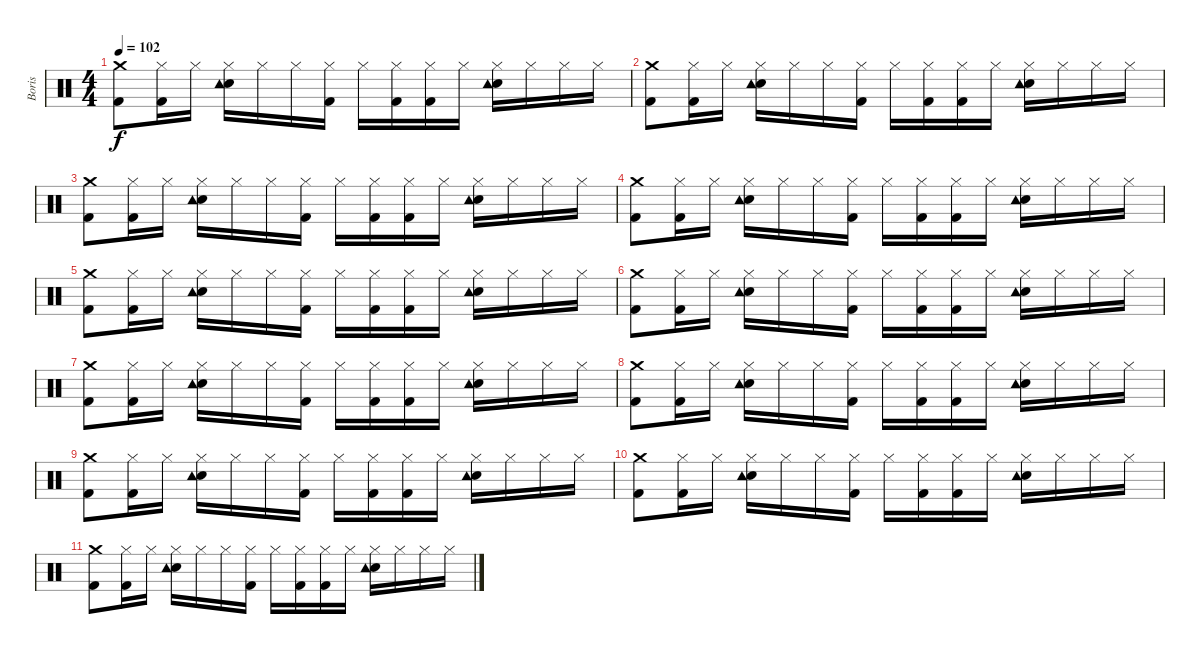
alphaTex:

\track ("Boris" "Boris") {instrument percussion}
\staff {score}
\articulation defaults
\ts (4 4)
\tempo 102
\clef neutral
\ks c
("Kick (hit) 2" "Crash medium (hit)").8{dy f} ("Kick (hit) 2" "Hi-Hat (closed)").16 "Hi-Hat (closed)".16 ("Electric Snare (hit)" "Tambourine (hit)" "Hi-Hat (closed)").16 "Hi-Hat (closed)".16 "Hi-Hat (closed)".16 ("Kick (hit) 2" "Hi-Hat (closed)").16 "Hi-Hat (closed)".16 ("Kick (hit) 2" "Hi-Hat (closed)").16 ("Kick (hit) 2" "Hi-Hat (closed)").16 "Hi-Hat (closed)".16 ("Electric Snare (hit)" "Tambourine (hit)" "Hi-Hat (closed)").16 "Hi-Hat (closed)".16 "Hi-Hat (closed)".16 "Hi-Hat (closed)".16 |
("Kick (hit) 2" "Crash medium (hit)").8 ("Kick (hit) 2" "Hi-Hat (closed)").16 "Hi-Hat (closed)".16 ("Electric Snare (hit)" "Tambourine (hit)" "Hi-Hat (closed)").16 "Hi-Hat (closed)".16 "Hi-Hat (closed)".16 ("Kick (hit) 2" "Hi-Hat (closed)").16 "Hi-Hat (closed)".16 ("Kick (hit) 2" "Hi-Hat (closed)").16 ("Kick (hit) 2" "Hi-Hat (closed)").16 "Hi-Hat (closed)".16 ("Electric Snare (hit)" "Tambourine (hit)" "Hi-Hat (closed)").16 "Hi-Hat (closed)".16 "Hi-Hat (closed)".16 "Hi-Hat (closed)".16 |
("Kick (hit) 2" "Crash medium (hit)").8{volume 6} ("Kick (hit) 2" "Hi-Hat (closed)").16 "Hi-Hat (closed)".16 ("Electric Snare (hit)" "Tambourine (hit)" "Hi-Hat (closed)").16 "Hi-Hat (closed)".16 "Hi-Hat (closed)".16 ("Kick (hit) 2" "Hi-Hat (closed)").16 "Hi-Hat (closed)".16 ("Kick (hit) 2" "Hi-Hat (closed)").16 ("Kick (hit) 2" "Hi-Hat (closed)").16 "Hi-Hat (closed)".16 ("Electric Snare (hit)" "Tambourine (hit)" "Hi-Hat (closed)").16 "Hi-Hat (closed)".16 "Hi-Hat (closed)".16 "Hi-Hat (closed)".16 |
("Kick (hit) 2" "Crash medium (hit)").8 ("Kick (hit) 2" "Hi-Hat (closed)").16 "Hi-Hat (closed)".16 ("Electric Snare (hit)" "Tambourine (hit)" "Hi-Hat (closed)").16 "Hi-Hat (closed)".16 "Hi-Hat (closed)".16 ("Kick (hit) 2" "Hi-Hat (closed)").16 "Hi-Hat (closed)".16 ("Kick (hit) 2" "Hi-Hat (closed)").16 ("Kick (hit) 2" "Hi-Hat (closed)").16 "Hi-Hat (closed)".16 ("Electric Snare (hit)" "Tambourine (hit)" "Hi-Hat (closed)").16 "Hi-Hat (closed)".16 "Hi-Hat (closed)".16 "Hi-Hat (closed)".16 |
("Kick (hit) 2" "Crash medium (hit)").8 ("Kick (hit) 2" "Hi-Hat (closed)").16 "Hi-Hat (closed)".16 ("Electric Snare (hit)" "Tambourine (hit)" "Hi-Hat (closed)").16 "Hi-Hat (closed)".16 "Hi-Hat (closed)".16 ("Kick (hit) 2" "Hi-Hat (closed)").16 "Hi-Hat (closed)".16 ("Kick (hit) 2" "Hi-Hat (closed)").16 ("Kick (hit) 2" "Hi-Hat (closed)").16 "Hi-Hat (closed)".16 ("Electric Snare (hit)" "Tambourine (hit)" "Hi-Hat (closed)").16 "Hi-Hat (closed)".16 "Hi-Hat (closed)".16 "Hi-Hat (closed)".16 |
("Kick (hit) 2" "Crash medium (hit)").8 ("Kick (hit) 2" "Hi-Hat (closed)").16 "Hi-Hat (closed)".16 ("Electric Snare (hit)" "Tambourine (hit)" "Hi-Hat (closed)").16 "Hi-Hat (closed)".16 "Hi-Hat (closed)".16 ("Kick (hit) 2" "Hi-Hat (closed)").16 "Hi-Hat (closed)".16 ("Kick (hit) 2" "Hi-Hat (closed)").16 ("Kick (hit) 2" "Hi-Hat (closed)").16 "Hi-Hat (closed)".16 ("Electric Snare (hit)" "Tambourine (hit)" "Hi-Hat (closed)").16 "Hi-Hat (closed)".16 "Hi-Hat (closed)".16 "Hi-Hat (closed)".16 |
("Kick (hit) 2" "Crash medium (hit)").8{volume 1} ("Kick (hit) 2" "Hi-Hat (closed)").16 "Hi-Hat (closed)".16 ("Electric Snare (hit)" "Tambourine (hit)" "Hi-Hat (closed)").16 "Hi-Hat (closed)".16 "Hi-Hat (closed)".16 ("Kick (hit) 2" "Hi-Hat (closed)").16 "Hi-Hat (closed)".16 ("Kick (hit) 2" "Hi-Hat (closed)").16 ("Kick (hit) 2" "Hi-Hat (closed)").16 "Hi-Hat (closed)".16 ("Electric Snare (hit)" "Tambourine (hit)" "Hi-Hat (closed)").16 "Hi-Hat (closed)".16 "Hi-Hat (closed)".16 "Hi-Hat (closed)".16 |
("Kick (hit) 2" "Crash medium (hit)").8 ("Kick (hit) 2" "Hi-Hat (closed)").16 "Hi-Hat (closed)".16 ("Electric Snare (hit)" "Tambourine (hit)" "Hi-Hat (closed)").16 "Hi-Hat (closed)".16 "Hi-Hat (closed)".16 ("Kick (hit) 2" "Hi-Hat (closed)").16 "Hi-Hat (closed)".16 ("Kick (hit) 2" "Hi-Hat (closed)").16 ("Kick (hit) 2" "Hi-Hat (closed)").16 "Hi-Hat (closed)".16 ("Electric Snare (hit)" "Tambourine (hit)" "Hi-Hat (closed)").16 "Hi-Hat (closed)".16 "Hi-Hat (closed)".16 "Hi-Hat (closed)".16 |
("Kick (hit) 2" "Crash medium (hit)").8 ("Kick (hit) 2" "Hi-Hat (closed)").16 "Hi-Hat (closed)".16 ("Electric Snare (hit)" "Tambourine (hit)" "Hi-Hat (closed)").16 "Hi-Hat (closed)".16 "Hi-Hat (closed)".16 ("Kick (hit) 2" "Hi-Hat (closed)").16 "Hi-Hat (closed)".16 ("Kick (hit) 2" "Hi-Hat (closed)").16 ("Kick (hit) 2" "Hi-Hat (closed)").16 "Hi-Hat (closed)".16 ("Electric Snare (hit)" "Tambourine (hit)" "Hi-Hat (closed)").16 "Hi-Hat (closed)".16 "Hi-Hat (closed)".16 "Hi-Hat (closed)".16 |
("Kick (hit) 2" "Crash medium (hit)").8 ("Kick (hit) 2" "Hi-Hat (closed)").16 "Hi-Hat (closed)".16 ("Electric Snare (hit)" "Tambourine (hit)" "Hi-Hat (closed)").16 "Hi-Hat (closed)".16 "Hi-Hat (closed)".16 ("Kick (hit) 2" "Hi-Hat (closed)").16 "Hi-Hat (closed)".16 ("Kick (hit) 2" "Hi-Hat (closed)").16 ("Kick (hit) 2" "Hi-Hat (closed)").16 "Hi-Hat (closed)".16 ("Electric Snare (hit)" "Tambourine (hit)" "Hi-Hat (closed)").16 "Hi-Hat (closed)".16 "Hi-Hat (closed)".16 "Hi-Hat (closed)".16 |
("Kick (hit) 2" "Crash medium (hit)").8 ("Kick (hit) 2" "Hi-Hat (closed)").16 "Hi-Hat (closed)".16 ("Electric Snare (hit)" "Tambourine (hit)" "Hi-Hat (closed)").16 "Hi-Hat (closed)".16 "Hi-Hat (closed)".16 ("Kick (hit) 2" "Hi-Hat (closed)").16 "Hi-Hat (closed)".16 ("Kick (hit) 2" "Hi-Hat (closed)").16 ("Kick (hit) 2" "Hi-Hat (closed)").16 "Hi-Hat (closed)".16 ("Electric Snare (hit)" "Tambourine (hit)" "Hi-Hat (closed)").16 "Hi-Hat (closed)".16 "Hi-Hat (closed)".16 "Hi-Hat (closed)".16
